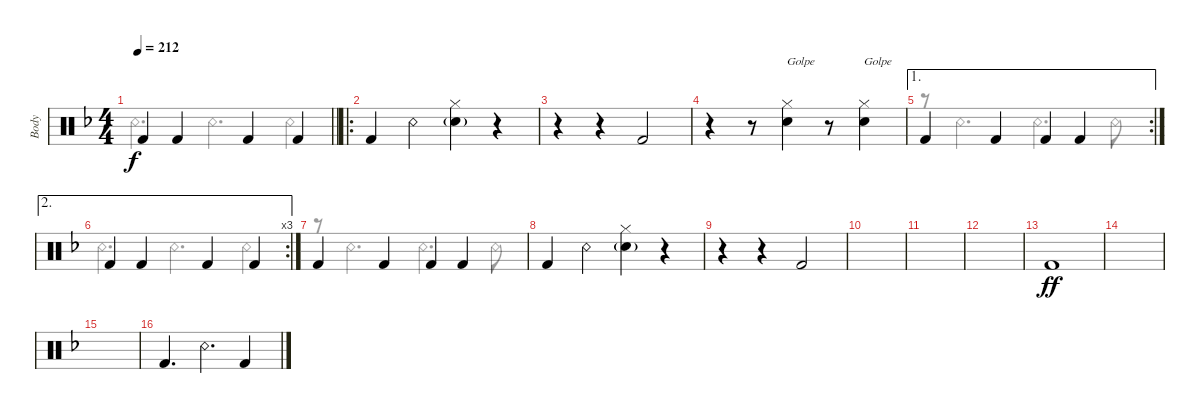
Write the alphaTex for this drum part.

\track ("Body" "Body") {instrument percussion}
\staff {score}
\articulation defaults
\voice
\ts (4 4)
\tempo 212
\clef neutral
\barLineRight lightlight
\ks dminor "Kick (hit) 2".4{dy f} "Kick (hit) 2".4 "Kick (hit) 2".4 "Kick (hit) 2".4
|
\ro "Kick (hit) 2".4 "Snare (rim shot)".4
("Snare (hit) 2"{g} "Hi-Hat (closed)").4 r.4 |
r.4 r.4 "Kick (hit) 2".2 |
r.4 r.8 ("Snare (hit) 2" "Hi-Hat (closed)").4{txt "Golpe"} r.8 ("Hi-Hat (closed)" "Snare (hit) 2").4{txt "Golpe"} |
\ae 1
\rc 2 "Kick (hit) 2".4 "Kick (hit) 2".4 "Kick (hit) 2".4 "Kick (hit) 2".4
|
\ae 2
\rc 3 "Kick (hit) 2".4 "Kick (hit) 2".4 "Kick (hit) 2".4 "Kick (hit) 2".4
|
"Kick (hit) 2".4 "Kick (hit) 2".4 "Kick (hit) 2".4 "Kick (hit) 2".4 |
"Kick (hit) 2".4 "Snare (rim shot)".4 ("Snare (hit) 2"{g} "Hi-Hat (closed)").4 r.4 |
r.4 r.4 "Kick (hit) 2".2 |
|
|
|
"Kick (hit) 2".1{dy ff} |
|
|
"Kick (hit) 2".4{d} "Snare (rim shot)".4{d} "Kick (hit) 2".4
\voice
\clef neutral
\ottava regular
\simile none
\barLineRight lightlight
\ks dminor "Snare (rim shot)".4{d dy f} "Snare (rim shot)".4{d} "Snare (rim shot)".4
|
|
|
|
r.8 "Snare (rim shot)".4{d} "Snare (rim shot)".4{d} "Snare (rim shot)".8 |
"Snare (rim shot)".4{d} "Snare (rim shot)".4{d} "Snare (rim shot)".4 |
r.8 "Snare (rim shot)".4{d} "Snare (rim shot)".4{d} "Snare (rim shot)".8 |
|
|
|
|
|
|
|
|
